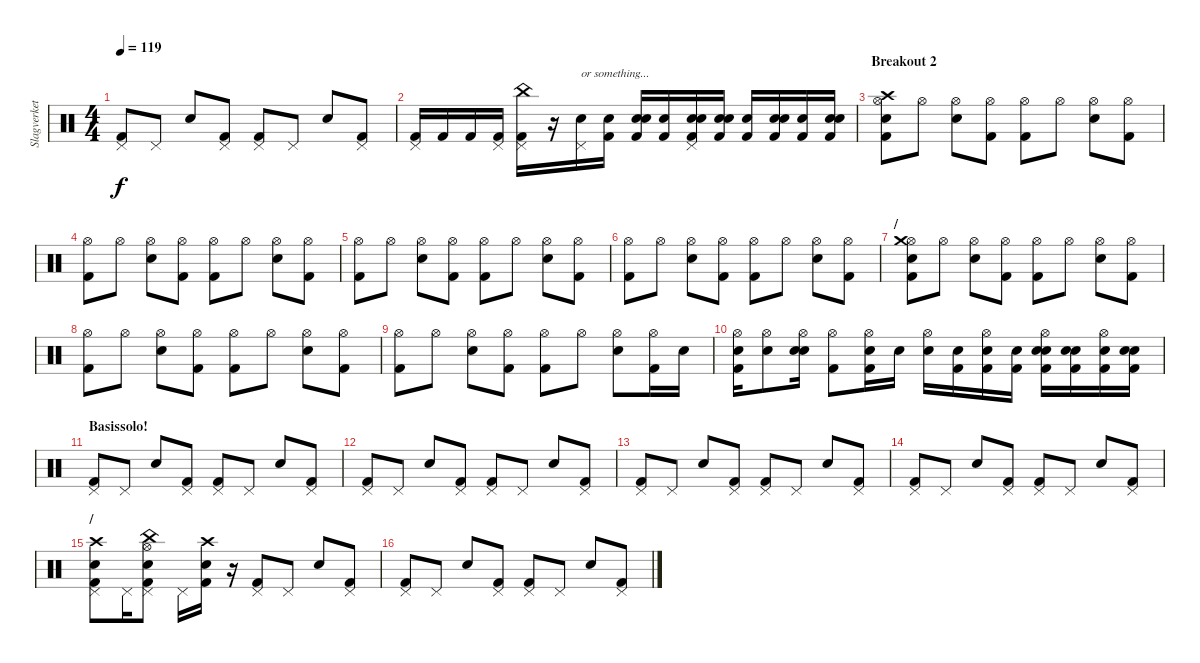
\track ("Slagverket!" "Slagverket") {instrument percussion}
\staff {score}
\articulation defaults
\ts (4 4)
\tempo 119
\clef neutral
\ks c
("Pedal Hi-Hat (hit)" "Kick (hit) 2").8{dy f} "Pedal Hi-Hat (hit)".8 "Snare (hit) 2".8 ("Pedal Hi-Hat (hit)" "Kick (hit) 2").8 ("Pedal Hi-Hat (hit)" "Kick (hit) 2").8 "Pedal Hi-Hat (hit)".8 "Snare (hit) 2".8 ("Pedal Hi-Hat (hit)" "Kick (hit) 2").8 |
("Pedal Hi-Hat (hit)" "Kick (hit) 2").16 "Kick (hit) 2".16 "Kick (hit) 2".16 ("Pedal Hi-Hat (hit)" "Kick (hit) 2").16 ("Pedal Hi-Hat (hit)" "China (hit)" "Kick (hit) 2").16 r.16 ("Pedal Hi-Hat (hit)" "Electric Snare (hit)").16{txt "or something..."} ("Electric Snare (hit)" "Kick (hit) 2").16 ("Snare (hit) 2" "Electric Snare (hit)" "Kick (hit) 2").16 ("Electric Snare (hit)" "Kick (hit) 2").16 ("Pedal Hi-Hat (hit)" "Snare (hit) 2" "Electric Snare (hit)" "Kick (hit) 2").16 ("Electric Snare (hit)" "Electric Snare (hit)" "Kick (hit) 2").16 ("Snare (hit) 2" "Kick (hit) 2").16 ("Electric Snare (hit)" "Snare (hit) 2" "Kick (hit) 2").16 ("Snare (hit) 2" "Kick (hit) 2").16 ("Snare (hit) 2" "Electric Snare (hit)" "Kick (hit) 2").16 |
\section ("" "Breakout 2")
("Hi-Hat (open)" "Crash high (hit)" "Snare (hit) 2" "Kick (hit) 2").8 "Hi-Hat (open)".8 ("Hi-Hat (open)" "Electric Snare (hit)").8 ("Hi-Hat (open)" "Kick (hit) 2").8 ("Hi-Hat (open)" "Kick (hit) 2").8 "Hi-Hat (open)".8 ("Hi-Hat (open)" "Electric Snare (hit)").8 ("Hi-Hat (open)" "Kick (hit) 2").8 |
("Hi-Hat (open)" "Kick (hit) 2").8 "Hi-Hat (open)".8 ("Hi-Hat (open)" "Electric Snare (hit)").8 ("Hi-Hat (open)" "Kick (hit) 2").8 ("Hi-Hat (open)" "Kick (hit) 2").8 "Hi-Hat (open)".8 ("Hi-Hat (open)" "Electric Snare (hit)").8 ("Hi-Hat (open)" "Kick (hit) 2").8 |
("Hi-Hat (open)" "Kick (hit) 2").8 "Hi-Hat (open)".8 ("Hi-Hat (open)" "Electric Snare (hit)").8 ("Hi-Hat (open)" "Kick (hit) 2").8 ("Hi-Hat (open)" "Kick (hit) 2").8 "Hi-Hat (open)".8 ("Hi-Hat (open)" "Electric Snare (hit)").8 ("Hi-Hat (open)" "Kick (hit) 2").8 |
("Hi-Hat (open)" "Kick (hit) 2").8 "Hi-Hat (open)".8 ("Hi-Hat (open)" "Electric Snare (hit)").8 ("Hi-Hat (open)" "Kick (hit) 2").8 ("Hi-Hat (open)" "Kick (hit) 2").8 "Hi-Hat (open)".8 ("Hi-Hat (open)" "Electric Snare (hit)").8 ("Hi-Hat (open)" "Kick (hit) 2").8 |
\section ("" "/")
("Hi-Hat (open)" "Crash medium (hit)" "Snare (hit) 2" "Kick (hit) 2").8 "Hi-Hat (open)".8 ("Hi-Hat (open)" "Electric Snare (hit)").8 ("Hi-Hat (open)" "Kick (hit) 2").8 ("Hi-Hat (open)" "Kick (hit) 2").8 "Hi-Hat (open)".8 ("Hi-Hat (open)" "Electric Snare (hit)").8 ("Hi-Hat (open)" "Kick (hit) 2").8 |
("Hi-Hat (open)" "Kick (hit) 2").8 "Hi-Hat (open)".8 ("Hi-Hat (open)" "Electric Snare (hit)").8 ("Hi-Hat (open)" "Kick (hit) 2").8 ("Hi-Hat (open)" "Kick (hit) 2").8 "Hi-Hat (open)".8 ("Hi-Hat (open)" "Electric Snare (hit)").8 ("Hi-Hat (open)" "Kick (hit) 2").8 |
("Hi-Hat (open)" "Kick (hit) 2").8 "Hi-Hat (open)".8 ("Hi-Hat (open)" "Electric Snare (hit)").8 ("Hi-Hat (open)" "Kick (hit) 2").8 ("Hi-Hat (open)" "Kick (hit) 2").8 "Hi-Hat (open)".8 ("Hi-Hat (open)" "Electric Snare (hit)").8 ("Hi-Hat (open)" "Kick (hit) 2").16 "Electric Snare (hit)".16 |
("Hi-Hat (open)" "Electric Snare (hit)" "Kick (hit) 2").16 ("Hi-Hat (open)" "Electric Snare (hit)").8 ("Hi-Hat (open)" "Snare (hit) 2" "Electric Snare (hit)").16 ("Hi-Hat (open)" "Kick (hit) 2").8 ("Hi-Hat (open)" "Electric Snare (hit)" "Kick (hit) 2").16 "Electric Snare (hit)".16 ("Hi-Hat (open)" "Electric Snare (hit)").16 ("Electric Snare (hit)" "Kick (hit) 2").16 ("Hi-Hat (open)" "Snare (hit) 2" "Kick (hit) 2").16 ("Electric Snare (hit)" "Kick (hit) 2").16 ("Hi-Hat (open)" "Snare (hit) 2" "Electric Snare (hit)" "Kick (hit) 2").16 ("Electric Snare (hit)" "Electric Snare (hit)" "Kick (hit) 2").16 ("Hi-Hat (open)" "Snare (hit) 2" "Kick (hit) 2").16 ("Electric Snare (hit)" "Snare (hit) 2" "Kick (hit) 2").16 |
\section ("" "Basissolo!")
("Pedal Hi-Hat (hit)" "Kick (hit) 2").8 "Pedal Hi-Hat (hit)".8 "Snare (hit) 2".8 ("Pedal Hi-Hat (hit)" "Kick (hit) 2").8 ("Pedal Hi-Hat (hit)" "Kick (hit) 2").8 "Pedal Hi-Hat (hit)".8 "Snare (hit) 2".8 ("Pedal Hi-Hat (hit)" "Kick (hit) 2").8 |
("Pedal Hi-Hat (hit)" "Kick (hit) 2").8 "Pedal Hi-Hat (hit)".8 "Snare (hit) 2".8 ("Pedal Hi-Hat (hit)" "Kick (hit) 2").8 ("Pedal Hi-Hat (hit)" "Kick (hit) 2").8 "Pedal Hi-Hat (hit)".8 "Snare (hit) 2".8 ("Pedal Hi-Hat (hit)" "Kick (hit) 2").8 |
("Pedal Hi-Hat (hit)" "Kick (hit) 2").8 "Pedal Hi-Hat (hit)".8 "Snare (hit) 2".8 ("Pedal Hi-Hat (hit)" "Kick (hit) 2").8 ("Pedal Hi-Hat (hit)" "Kick (hit) 2").8 "Pedal Hi-Hat (hit)".8 "Snare (hit) 2".8 ("Pedal Hi-Hat (hit)" "Kick (hit) 2").8 |
("Pedal Hi-Hat (hit)" "Kick (hit) 2").8 "Pedal Hi-Hat (hit)".8 "Snare (hit) 2".8 ("Pedal Hi-Hat (hit)" "Kick (hit) 2").8 ("Pedal Hi-Hat (hit)" "Kick (hit) 2").8 "Pedal Hi-Hat (hit)".8 "Snare (hit) 2".8 ("Pedal Hi-Hat (hit)" "Kick (hit) 2").8 |
\section ("" "/")
("Pedal Hi-Hat (hit)" "Crash high (hit)" "Snare (hit) 2" "Kick (hit) 2").8 "Pedal Hi-Hat (hit)".16 ("Pedal Hi-Hat (hit)" "Hi-Hat (open)" "Snare (hit) 2" "China (hit)" "Kick (hit) 2").8 "Pedal Hi-Hat (hit)".16 ("Crash high (hit)" "Electric Snare (hit)" "Kick (hit) 2").16 r.16 ("Pedal Hi-Hat (hit)" "Kick (hit) 2").8 "Pedal Hi-Hat (hit)".8 "Snare (hit) 2".8 ("Pedal Hi-Hat (hit)" "Kick (hit) 2").8 |
("Pedal Hi-Hat (hit)" "Kick (hit) 2").8 "Pedal Hi-Hat (hit)".8 "Snare (hit) 2".8 ("Pedal Hi-Hat (hit)" "Kick (hit) 2").8 ("Pedal Hi-Hat (hit)" "Kick (hit) 2").8 "Pedal Hi-Hat (hit)".8 "Snare (hit) 2".8 ("Pedal Hi-Hat (hit)" "Kick (hit) 2").8
